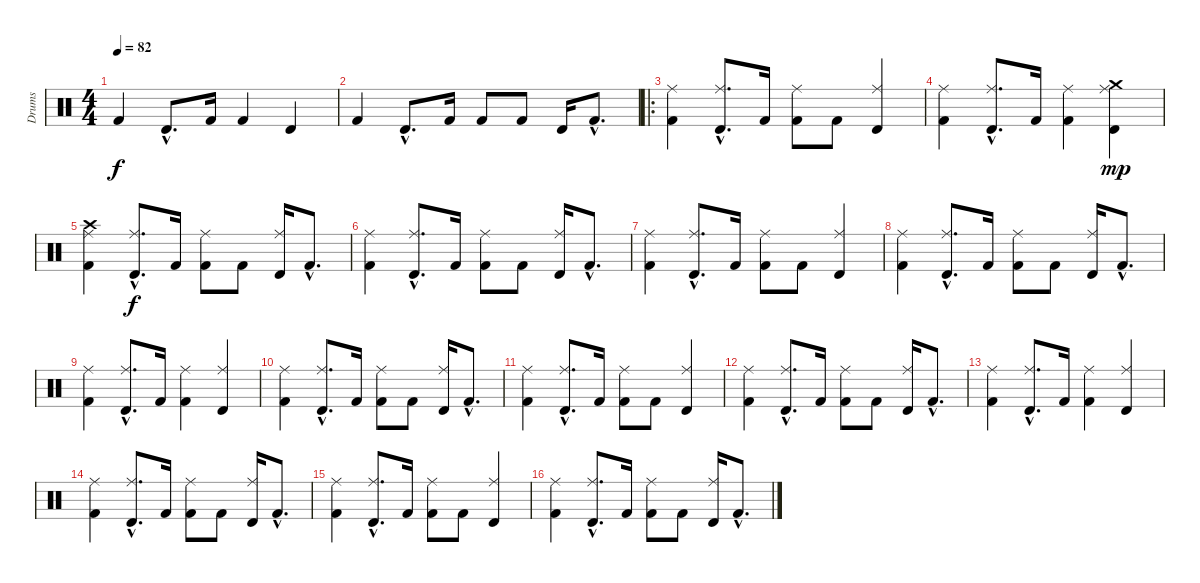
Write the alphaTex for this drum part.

\track ("Drums" "Drums") {instrument percussion}
\staff {score}
\articulation defaults
\ts (4 4)
\tempo 82
\clef neutral
\ks c "Kick (hit) 2".4{dy f} "Timbale high (hit)"{hac}.8{d} "Kick (hit) 2".16 "Kick (hit) 2".4 "Timbale high (hit)".4
|
"Kick (hit) 2".4 "Timbale high (hit)"{hac}.8{d} "Kick (hit) 2".16 "Kick (hit) 2".8 "Kick (hit) 2".8 "Timbale high (hit)".16 "Kick (hit) 2"{hac}.8{d} |
\ro
("Ride (middle)" "Kick (hit) 2").4 ("Ride (middle)"{hac} "Timbale high (hit)"{hac}).8{d} "Kick (hit) 2".16 ("Ride (middle)" "Kick (hit) 2").8 "Kick (hit) 2".8 ("Ride (middle)" "Timbale high (hit)").4 |
("Ride (middle)" "Kick (hit) 2").4 ("Ride (middle)"{hac} "Timbale high (hit)"{hac}).8{d} "Kick (hit) 2".16 ("Ride (middle)" "Kick (hit) 2").4 ("Crash medium (hit)" "Ride (middle)" "Timbale high (hit)").4{dy mp} |
("Crash high (hit)" "Ride (middle)" "Kick (hit) 2").4 ("Ride (middle)"{hac} "Timbale high (hit)"{hac}).8{d dy f} "Kick (hit) 2".16 ("Ride (middle)" "Kick (hit) 2").8 "Kick (hit) 2".8 ("Ride (middle)" "Timbale high (hit)").16 "Kick (hit) 2"{hac}.8{d} |
("Ride (middle)" "Kick (hit) 2").4 ("Ride (middle)"{hac} "Timbale high (hit)"{hac}).8{d} "Kick (hit) 2".16 ("Ride (middle)" "Kick (hit) 2").8 "Kick (hit) 2".8 ("Ride (middle)" "Timbale high (hit)").16 "Kick (hit) 2"{hac}.8{d} |
("Ride (middle)" "Kick (hit) 2").4 ("Ride (middle)"{hac} "Timbale high (hit)"{hac}).8{d} "Kick (hit) 2".16 ("Ride (middle)" "Kick (hit) 2").8 "Kick (hit) 2".8 ("Ride (middle)" "Timbale high (hit)").4 |
("Ride (middle)" "Kick (hit) 2").4 ("Ride (middle)"{hac} "Timbale high (hit)"{hac}).8{d} "Kick (hit) 2".16 ("Ride (middle)" "Kick (hit) 2").8 "Kick (hit) 2".8 ("Ride (middle)" "Timbale high (hit)").16 "Kick (hit) 2"{hac}.8{d} |
("Ride (middle)" "Kick (hit) 2").4 ("Ride (middle)"{hac} "Timbale high (hit)"{hac}).8{d} "Kick (hit) 2".16 ("Ride (middle)" "Kick (hit) 2").4 ("Ride (middle)" "Timbale high (hit)").4 |
("Ride (middle)" "Kick (hit) 2").4 ("Ride (middle)"{hac} "Timbale high (hit)"{hac}).8{d} "Kick (hit) 2".16 ("Ride (middle)" "Kick (hit) 2").8 "Kick (hit) 2".8 ("Ride (middle)" "Timbale high (hit)").16 "Kick (hit) 2"{hac}.8{d} |
("Ride (middle)" "Kick (hit) 2").4 ("Ride (middle)"{hac} "Timbale high (hit)"{hac}).8{d} "Kick (hit) 2".16 ("Ride (middle)" "Kick (hit) 2").8 "Kick (hit) 2".8 ("Ride (middle)" "Timbale high (hit)").4 |
("Ride (middle)" "Kick (hit) 2").4 ("Ride (middle)"{hac} "Timbale high (hit)"{hac}).8{d} "Kick (hit) 2".16 ("Ride (middle)" "Kick (hit) 2").8 "Kick (hit) 2".8 ("Ride (middle)" "Timbale high (hit)").16 "Kick (hit) 2"{hac}.8{d} |
("Ride (middle)" "Kick (hit) 2").4 ("Ride (middle)"{hac} "Timbale high (hit)"{hac}).8{d} "Kick (hit) 2".16 ("Ride (middle)" "Kick (hit) 2").4 ("Ride (middle)" "Timbale high (hit)").4 |
("Ride (middle)" "Kick (hit) 2").4 ("Ride (middle)"{hac} "Timbale high (hit)"{hac}).8{d} "Kick (hit) 2".16 ("Ride (middle)" "Kick (hit) 2").8 "Kick (hit) 2".8 ("Ride (middle)" "Timbale high (hit)").16 "Kick (hit) 2"{hac}.8{d} |
("Ride (middle)" "Kick (hit) 2").4 ("Ride (middle)"{hac} "Timbale high (hit)"{hac}).8{d} "Kick (hit) 2".16 ("Ride (middle)" "Kick (hit) 2").8 "Kick (hit) 2".8 ("Ride (middle)" "Timbale high (hit)").4 |
("Ride (middle)" "Kick (hit) 2").4 ("Ride (middle)"{hac} "Timbale high (hit)"{hac}).8{d} "Kick (hit) 2".16 ("Ride (middle)" "Kick (hit) 2").8 "Kick (hit) 2".8 ("Ride (middle)" "Timbale high (hit)").16 "Kick (hit) 2"{hac}.8{d}
